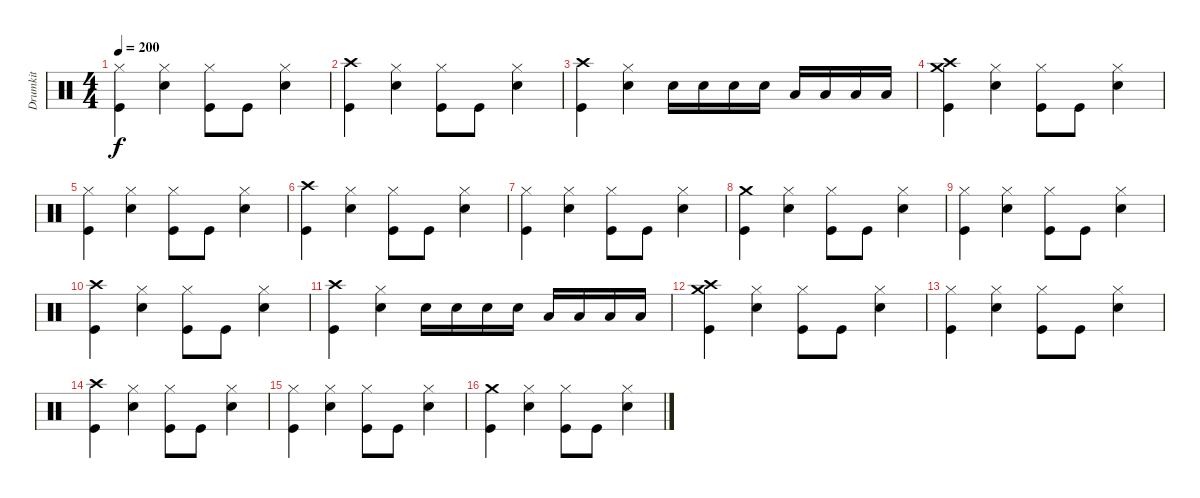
\track ("Drumkit" "Drumkit") {instrument percussion}
\staff {score}
\articulation defaults
\ts (4 4)
\tempo 200
\clef neutral
\ks c
("Hi-Hat (closed)" "Kick (hit)").4{dy f} ("Hi-Hat (closed)" "Snare (hit) 2").4 ("Hi-Hat (closed)" "Kick (hit)").8 "Kick (hit)".8 ("Hi-Hat (closed)" "Snare (hit) 2").4 |
("Crash high (hit)" "Kick (hit)").4 ("Hi-Hat (closed)" "Snare (hit) 2").4 ("Hi-Hat (closed)" "Kick (hit)").8 "Kick (hit)".8 ("Hi-Hat (closed)" "Snare (hit) 2").4 |
("Crash high (hit)" "Kick (hit)").4 ("Hi-Hat (closed)" "Snare (hit) 2").4 "Snare (hit) 2".16 "Snare (hit) 2".16 "Snare (hit) 2".16 "Snare (hit) 2".16 "Low Floor Tom (hit)".16 "Low Floor Tom (hit)".16 "Low Tom (hit)".16 "Low Tom (hit)".16 |
("Crash medium (hit)" "Crash high (hit)" "Kick (hit)").4 ("Hi-Hat (closed)" "Snare (hit) 2").4 ("Hi-Hat (closed)" "Kick (hit)").8 "Kick (hit)".8 ("Hi-Hat (closed)" "Snare (hit) 2").4 |
("Hi-Hat (closed)" "Kick (hit)").4 ("Hi-Hat (closed)" "Snare (hit) 2").4 ("Hi-Hat (closed)" "Kick (hit)").8 "Kick (hit)".8 ("Hi-Hat (closed)" "Snare (hit) 2").4 |
("Crash high (hit)" "Kick (hit)").4 ("Hi-Hat (closed)" "Snare (hit) 2").4 ("Hi-Hat (closed)" "Kick (hit)").8 "Kick (hit)".8 ("Hi-Hat (closed)" "Snare (hit) 2").4 |
("Hi-Hat (closed)" "Kick (hit)").4 ("Hi-Hat (closed)" "Snare (hit) 2").4 ("Hi-Hat (closed)" "Kick (hit)").8 "Kick (hit)".8 ("Hi-Hat (closed)" "Snare (hit) 2").4 |
("Crash medium (hit)" "Kick (hit)").4 ("Hi-Hat (closed)" "Snare (hit) 2").4 ("Hi-Hat (closed)" "Kick (hit)").8 "Kick (hit)".8 ("Hi-Hat (closed)" "Snare (hit) 2").4 |
("Hi-Hat (closed)" "Kick (hit)").4 ("Hi-Hat (closed)" "Snare (hit) 2").4 ("Hi-Hat (closed)" "Kick (hit)").8 "Kick (hit)".8 ("Hi-Hat (closed)" "Snare (hit) 2").4 |
("Crash high (hit)" "Kick (hit)").4 ("Hi-Hat (closed)" "Snare (hit) 2").4 ("Hi-Hat (closed)" "Kick (hit)").8 "Kick (hit)".8 ("Hi-Hat (closed)" "Snare (hit) 2").4 |
("Crash high (hit)" "Kick (hit)").4 ("Hi-Hat (closed)" "Snare (hit) 2").4 "Snare (hit) 2".16 "Snare (hit) 2".16 "Snare (hit) 2".16 "Snare (hit) 2".16 "Low Floor Tom (hit)".16 "Low Floor Tom (hit)".16 "Low Tom (hit)".16 "Low Tom (hit)".16 |
("Crash medium (hit)" "Crash high (hit)" "Kick (hit)").4 ("Hi-Hat (closed)" "Snare (hit) 2").4 ("Hi-Hat (closed)" "Kick (hit)").8 "Kick (hit)".8 ("Hi-Hat (closed)" "Snare (hit) 2").4 |
("Hi-Hat (closed)" "Kick (hit)").4 ("Hi-Hat (closed)" "Snare (hit) 2").4 ("Hi-Hat (closed)" "Kick (hit)").8 "Kick (hit)".8 ("Hi-Hat (closed)" "Snare (hit) 2").4 |
("Crash high (hit)" "Kick (hit)").4 ("Hi-Hat (closed)" "Snare (hit) 2").4 ("Hi-Hat (closed)" "Kick (hit)").8 "Kick (hit)".8 ("Hi-Hat (closed)" "Snare (hit) 2").4 |
("Hi-Hat (closed)" "Kick (hit)").4 ("Hi-Hat (closed)" "Snare (hit) 2").4 ("Hi-Hat (closed)" "Kick (hit)").8 "Kick (hit)".8 ("Hi-Hat (closed)" "Snare (hit) 2").4 |
("Crash medium (hit)" "Kick (hit)").4 ("Hi-Hat (closed)" "Snare (hit) 2").4 ("Hi-Hat (closed)" "Kick (hit)").8 "Kick (hit)".8 ("Hi-Hat (closed)" "Snare (hit) 2").4
